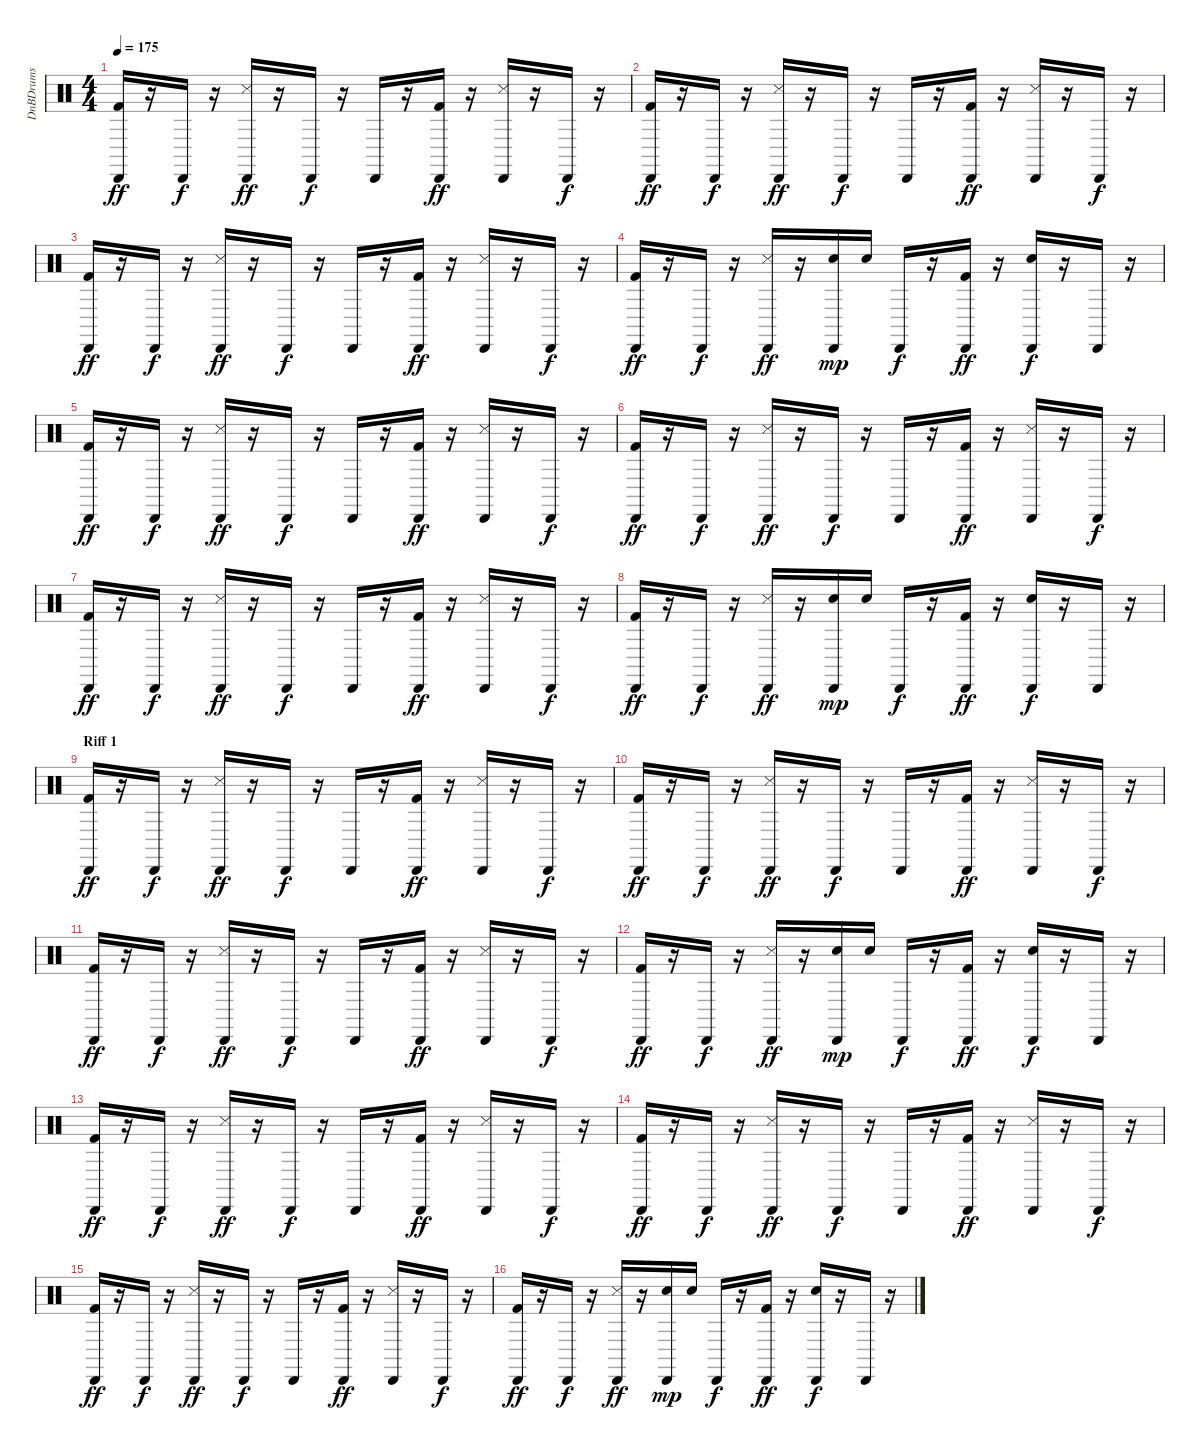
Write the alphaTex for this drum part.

\track ("DnBDrums" "DnBDrums") {instrument percussion}
\staff {score}
\articulation defaults
\ts (4 4)
\tempo 175
\clef neutral
\ks c
("Kick (hit) 2" "Cabasa (hit)").16{dy ff} r.16 "Cabasa (hit)".16{dy f} r.16 ("Snare (side stick) 3" "Cabasa (hit)").16{dy ff} r.16 "Cabasa (hit)".16{dy f} r.16 "Cabasa (hit)".16 r.16 ("Kick (hit) 2" "Cabasa (hit)").16{dy ff} r.16 ("Snare (side stick) 3" "Cabasa (hit)").16 r.16 "Cabasa (hit)".16{dy f} r.16 |
("Kick (hit) 2" "Cabasa (hit)").16{dy ff} r.16 "Cabasa (hit)".16{dy f} r.16 ("Snare (side stick) 3" "Cabasa (hit)").16{dy ff} r.16 "Cabasa (hit)".16{dy f} r.16 "Cabasa (hit)".16 r.16 ("Kick (hit) 2" "Cabasa (hit)").16{dy ff} r.16 ("Snare (side stick) 3" "Cabasa (hit)").16 r.16 "Cabasa (hit)".16{dy f} r.16 |
("Kick (hit) 2" "Cabasa (hit)").16{dy ff} r.16 "Cabasa (hit)".16{dy f} r.16 ("Snare (side stick) 3" "Cabasa (hit)").16{dy ff} r.16 "Cabasa (hit)".16{dy f} r.16 "Cabasa (hit)".16 r.16 ("Kick (hit) 2" "Cabasa (hit)").16{dy ff} r.16 ("Snare (side stick) 3" "Cabasa (hit)").16 r.16 "Cabasa (hit)".16{dy f} r.16 |
("Kick (hit) 2" "Cabasa (hit)").16{dy ff} r.16 "Cabasa (hit)".16{dy f} r.16 ("Snare (side stick) 3" "Cabasa (hit)").16{dy ff} r.16 ("Electric Snare (hit)" "Cabasa (hit)").16{dy mp} "Electric Snare (hit)".16 "Cabasa (hit)".16{dy f} r.16 ("Kick (hit) 2" "Cabasa (hit)").16{dy ff} r.16 ("Electric Snare (hit)" "Cabasa (hit)").16{dy f} r.16 "Cabasa (hit)".16 r.16 |
("Kick (hit) 2" "Cabasa (hit)").16{dy ff} r.16 "Cabasa (hit)".16{dy f} r.16 ("Snare (side stick) 3" "Cabasa (hit)").16{dy ff} r.16 "Cabasa (hit)".16{dy f} r.16 "Cabasa (hit)".16 r.16 ("Kick (hit) 2" "Cabasa (hit)").16{dy ff} r.16 ("Snare (side stick) 3" "Cabasa (hit)").16 r.16 "Cabasa (hit)".16{dy f} r.16 |
("Kick (hit) 2" "Cabasa (hit)").16{dy ff} r.16 "Cabasa (hit)".16{dy f} r.16 ("Snare (side stick) 3" "Cabasa (hit)").16{dy ff} r.16 "Cabasa (hit)".16{dy f} r.16 "Cabasa (hit)".16 r.16 ("Kick (hit) 2" "Cabasa (hit)").16{dy ff} r.16 ("Snare (side stick) 3" "Cabasa (hit)").16 r.16 "Cabasa (hit)".16{dy f} r.16 |
("Kick (hit) 2" "Cabasa (hit)").16{dy ff} r.16 "Cabasa (hit)".16{dy f} r.16 ("Snare (side stick) 3" "Cabasa (hit)").16{dy ff} r.16 "Cabasa (hit)".16{dy f} r.16 "Cabasa (hit)".16 r.16 ("Kick (hit) 2" "Cabasa (hit)").16{dy ff} r.16 ("Snare (side stick) 3" "Cabasa (hit)").16 r.16 "Cabasa (hit)".16{dy f} r.16 |
("Kick (hit) 2" "Cabasa (hit)").16{dy ff} r.16 "Cabasa (hit)".16{dy f} r.16 ("Snare (side stick) 3" "Cabasa (hit)").16{dy ff} r.16 ("Electric Snare (hit)" "Cabasa (hit)").16{dy mp} "Electric Snare (hit)".16 "Cabasa (hit)".16{dy f} r.16 ("Kick (hit) 2" "Cabasa (hit)").16{dy ff} r.16 ("Electric Snare (hit)" "Cabasa (hit)").16{dy f} r.16 "Cabasa (hit)".16 r.16 |
\section ("" "Riff 1")
("Kick (hit) 2" "Cabasa (hit)").16{dy ff} r.16 "Cabasa (hit)".16{dy f} r.16 ("Snare (side stick) 3" "Cabasa (hit)").16{dy ff} r.16 "Cabasa (hit)".16{dy f} r.16 "Cabasa (hit)".16 r.16 ("Kick (hit) 2" "Cabasa (hit)").16{dy ff} r.16 ("Snare (side stick) 3" "Cabasa (hit)").16 r.16 "Cabasa (hit)".16{dy f} r.16 |
("Kick (hit) 2" "Cabasa (hit)").16{dy ff} r.16 "Cabasa (hit)".16{dy f} r.16 ("Snare (side stick) 3" "Cabasa (hit)").16{dy ff} r.16 "Cabasa (hit)".16{dy f} r.16 "Cabasa (hit)".16 r.16 ("Kick (hit) 2" "Cabasa (hit)").16{dy ff} r.16 ("Snare (side stick) 3" "Cabasa (hit)").16 r.16 "Cabasa (hit)".16{dy f} r.16 |
("Kick (hit) 2" "Cabasa (hit)").16{dy ff} r.16 "Cabasa (hit)".16{dy f} r.16 ("Snare (side stick) 3" "Cabasa (hit)").16{dy ff} r.16 "Cabasa (hit)".16{dy f} r.16 "Cabasa (hit)".16 r.16 ("Kick (hit) 2" "Cabasa (hit)").16{dy ff} r.16 ("Snare (side stick) 3" "Cabasa (hit)").16 r.16 "Cabasa (hit)".16{dy f} r.16 |
("Kick (hit) 2" "Cabasa (hit)").16{dy ff} r.16 "Cabasa (hit)".16{dy f} r.16 ("Snare (side stick) 3" "Cabasa (hit)").16{dy ff} r.16 ("Electric Snare (hit)" "Cabasa (hit)").16{dy mp} "Electric Snare (hit)".16 "Cabasa (hit)".16{dy f} r.16 ("Kick (hit) 2" "Cabasa (hit)").16{dy ff} r.16 ("Electric Snare (hit)" "Cabasa (hit)").16{dy f} r.16 "Cabasa (hit)".16 r.16 |
("Kick (hit) 2" "Cabasa (hit)").16{dy ff} r.16 "Cabasa (hit)".16{dy f} r.16 ("Snare (side stick) 3" "Cabasa (hit)").16{dy ff} r.16 "Cabasa (hit)".16{dy f} r.16 "Cabasa (hit)".16 r.16 ("Kick (hit) 2" "Cabasa (hit)").16{dy ff} r.16 ("Snare (side stick) 3" "Cabasa (hit)").16 r.16 "Cabasa (hit)".16{dy f} r.16 |
("Kick (hit) 2" "Cabasa (hit)").16{dy ff} r.16 "Cabasa (hit)".16{dy f} r.16 ("Snare (side stick) 3" "Cabasa (hit)").16{dy ff} r.16 "Cabasa (hit)".16{dy f} r.16 "Cabasa (hit)".16 r.16 ("Kick (hit) 2" "Cabasa (hit)").16{dy ff} r.16 ("Snare (side stick) 3" "Cabasa (hit)").16 r.16 "Cabasa (hit)".16{dy f} r.16 |
("Kick (hit) 2" "Cabasa (hit)").16{dy ff} r.16 "Cabasa (hit)".16{dy f} r.16 ("Snare (side stick) 3" "Cabasa (hit)").16{dy ff} r.16 "Cabasa (hit)".16{dy f} r.16 "Cabasa (hit)".16 r.16 ("Kick (hit) 2" "Cabasa (hit)").16{dy ff} r.16 ("Snare (side stick) 3" "Cabasa (hit)").16 r.16 "Cabasa (hit)".16{dy f} r.16 |
("Kick (hit) 2" "Cabasa (hit)").16{dy ff} r.16 "Cabasa (hit)".16{dy f} r.16 ("Snare (side stick) 3" "Cabasa (hit)").16{dy ff} r.16 ("Electric Snare (hit)" "Cabasa (hit)").16{dy mp} "Electric Snare (hit)".16 "Cabasa (hit)".16{dy f} r.16 ("Kick (hit) 2" "Cabasa (hit)").16{dy ff} r.16 ("Electric Snare (hit)" "Cabasa (hit)").16{dy f} r.16 "Cabasa (hit)".16 r.16
